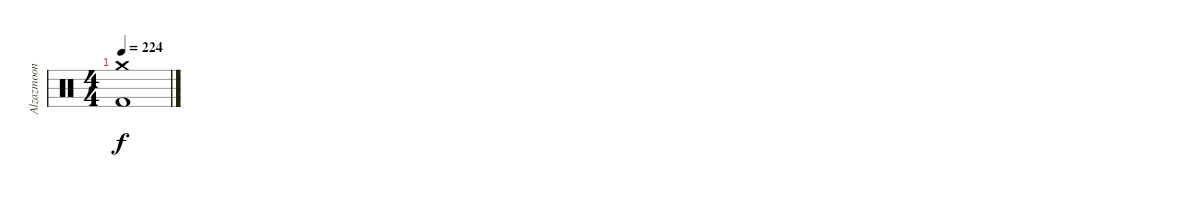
\track ("Alzazmoon" "Alzazmoon") {instrument percussion}
\staff {score}
\articulation defaults
\ts (4 4)
\tempo 224
\clef neutral
\ks c
("Crash medium (hit)" "Kick (hit) 2").1{dy f}
